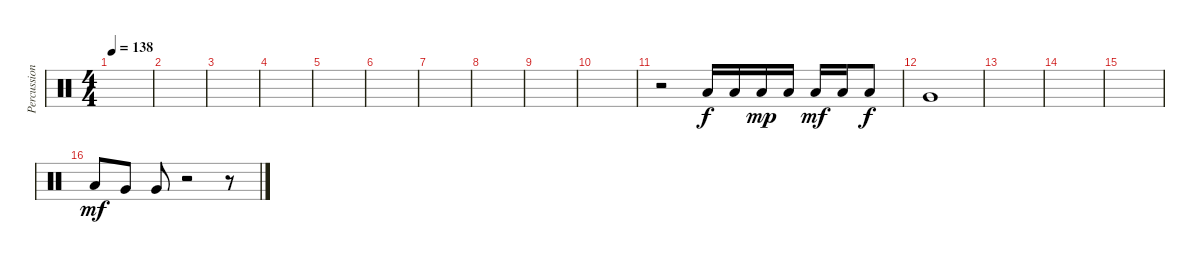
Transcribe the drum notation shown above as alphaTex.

\track ("Percussions" "Percussion") {instrument percussion}
\staff {score}
\articulation defaults
\ts (4 4)
\tempo 138
\clef neutral
\ks c
|
|
|
|
|
|
|
|
|
|
r.2 "Low Tom (hit)".16 "Low Tom (hit)".16 "Low Tom (hit)".16{dy mp} "Low Tom (hit)".16 "Low Tom (hit)".16{dy mf} "Low Tom (hit)".16 "Low Tom (hit)".8{dy f} |
"Very Low Tom (hit)".1 |
|
|
|
"Low Tom (hit)".8{dy mf} "Very Low Tom (hit)".8 "Very Low Tom (hit)".8 r.2 r.8
